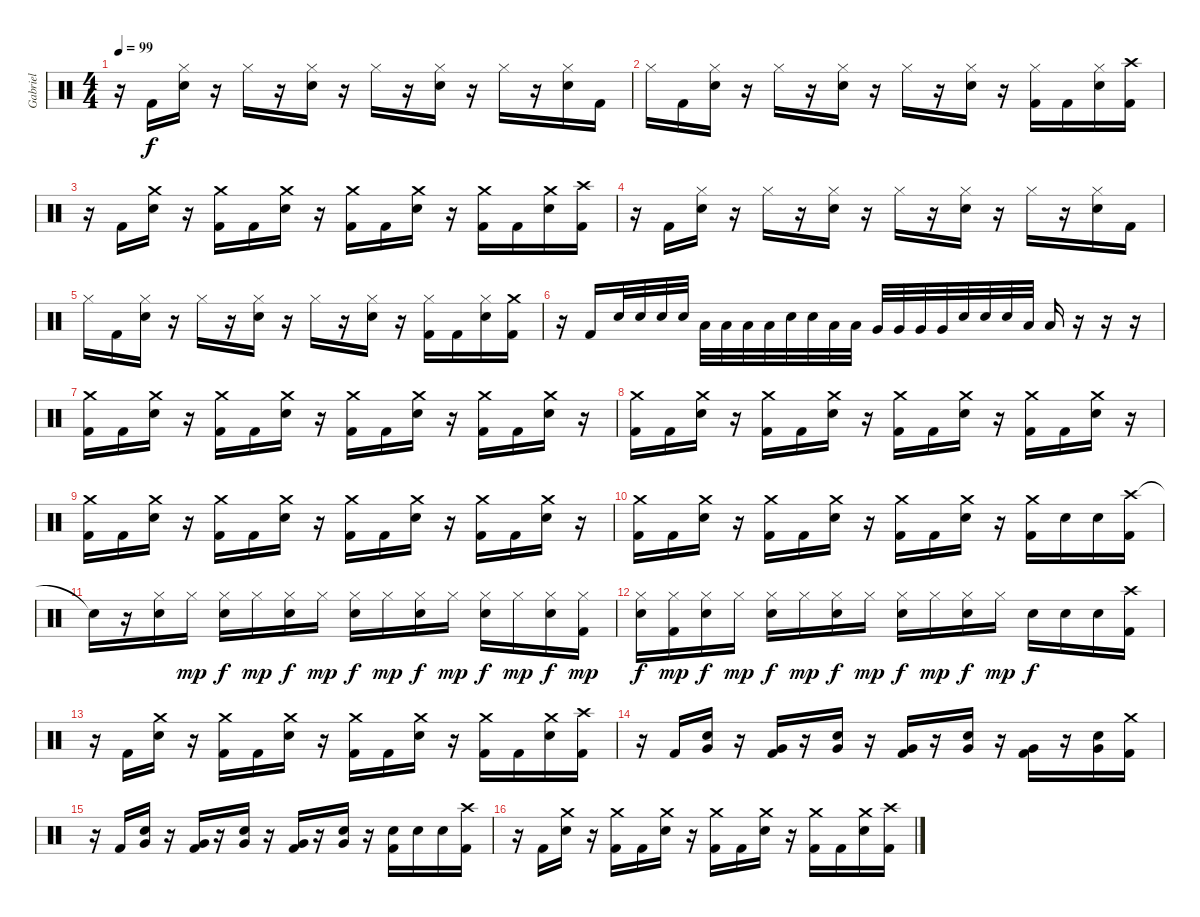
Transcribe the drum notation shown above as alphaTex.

\track ("Gabriel" "Gabriel") {instrument percussion}
\staff {score}
\articulation defaults
\ts (4 4)
\tempo 99
\clef neutral
\ks c
r.16{dy f} "Kick (hit) 2".16 ("Hi-Hat (closed)" "Electric Snare (hit)").16 r.16 "Hi-Hat (closed)".16 r.16 ("Hi-Hat (closed)" "Electric Snare (hit)").16 r.16 "Hi-Hat (closed)".16 r.16 ("Hi-Hat (closed)" "Electric Snare (hit)").16 r.16 "Hi-Hat (closed)".16 r.16 ("Hi-Hat (closed)" "Electric Snare (hit)").16 "Kick (hit) 2".16 |
"Hi-Hat (closed)".16 "Kick (hit) 2".16 ("Hi-Hat (closed)" "Electric Snare (hit)").16 r.16 "Hi-Hat (closed)".16 r.16 ("Hi-Hat (closed)" "Electric Snare (hit)").16 r.16 "Hi-Hat (closed)".16 r.16 ("Hi-Hat (closed)" "Electric Snare (hit)").16 r.16 ("Hi-Hat (closed)" "Kick (hit) 2").16 "Kick (hit) 2".16 ("Hi-Hat (closed)" "Electric Snare (hit)").16 ("Crash high (hit)" "Kick (hit) 2").16 |
r.16 "Kick (hit) 2".16 ("Crash medium (hit)" "Electric Snare (hit)").16 r.16 ("Crash medium (hit)" "Kick (hit) 2").16 "Kick (hit) 2".16 ("Crash medium (hit)" "Electric Snare (hit)").16 r.16 ("Crash medium (hit)" "Kick (hit) 2").16 "Kick (hit) 2".16 ("Crash medium (hit)" "Electric Snare (hit)").16 r.16 ("Crash medium (hit)" "Kick (hit) 2").16 "Kick (hit) 2".16 ("Crash medium (hit)" "Electric Snare (hit)").16 ("Crash high (hit)" "Kick (hit) 2").16 |
r.16 "Kick (hit) 2".16 ("Hi-Hat (closed)" "Electric Snare (hit)").16 r.16 "Hi-Hat (closed)".16 r.16 ("Hi-Hat (closed)" "Electric Snare (hit)").16 r.16 "Hi-Hat (closed)".16 r.16 ("Hi-Hat (closed)" "Electric Snare (hit)").16 r.16 "Hi-Hat (closed)".16 r.16 ("Hi-Hat (closed)" "Electric Snare (hit)").16 "Kick (hit) 2".16 |
"Hi-Hat (closed)".16 "Kick (hit) 2".16 ("Hi-Hat (closed)" "Electric Snare (hit)").16 r.16 "Hi-Hat (closed)".16 r.16 ("Hi-Hat (closed)" "Electric Snare (hit)").16 r.16 "Hi-Hat (closed)".16 r.16 ("Hi-Hat (closed)" "Electric Snare (hit)").16 r.16 ("Hi-Hat (closed)" "Kick (hit) 2").16 "Kick (hit) 2".16 ("Hi-Hat (closed)" "Electric Snare (hit)").16 ("Crash medium (hit)" "Kick (hit) 2").16 |
r.16 "Kick (hit) 2".16 "Electric Snare (hit)".32 "Electric Snare (hit)".32 "Electric Snare (hit)".32 "Electric Snare (hit)".32 "Low Tom (hit)".32 "Low Tom (hit)".32 "Low Tom (hit)".32 "Low Tom (hit)".32 "Electric Snare (hit)".32 "Electric Snare (hit)".32 "Low Tom (hit)".32 "Low Tom (hit)".32 "Very Low Tom (hit)".32 "Very Low Tom (hit)".32 "Very Low Tom (hit)".32 "Very Low Tom (hit)".32 "Electric Snare (hit)".32 "Electric Snare (hit)".32 "Electric Snare (hit)".32 "Low Tom (hit)".32 "Low Tom (hit)".16 r.16 r.16 r.16 |
("Crash medium (hit)" "Kick (hit) 2").16 "Kick (hit) 2".16 ("Crash medium (hit)" "Electric Snare (hit)").16 r.16 ("Crash medium (hit)" "Kick (hit) 2").16 "Kick (hit) 2".16 ("Crash medium (hit)" "Electric Snare (hit)").16 r.16 ("Crash medium (hit)" "Kick (hit) 2").16 "Kick (hit) 2".16 ("Crash medium (hit)" "Electric Snare (hit)").16 r.16 ("Crash medium (hit)" "Kick (hit) 2").16 "Kick (hit) 2".16 ("Crash medium (hit)" "Electric Snare (hit)").16 r.16 |
("Crash medium (hit)" "Kick (hit) 2").16 "Kick (hit) 2".16 ("Crash medium (hit)" "Electric Snare (hit)").16 r.16 ("Crash medium (hit)" "Kick (hit) 2").16 "Kick (hit) 2".16 ("Crash medium (hit)" "Electric Snare (hit)").16 r.16 ("Crash medium (hit)" "Kick (hit) 2").16 "Kick (hit) 2".16 ("Crash medium (hit)" "Electric Snare (hit)").16 r.16 ("Crash medium (hit)" "Kick (hit) 2").16 "Kick (hit) 2".16 ("Crash medium (hit)" "Electric Snare (hit)").16 r.16 |
("Crash medium (hit)" "Kick (hit) 2").16 "Kick (hit) 2".16 ("Crash medium (hit)" "Electric Snare (hit)").16 r.16 ("Crash medium (hit)" "Kick (hit) 2").16 "Kick (hit) 2".16 ("Crash medium (hit)" "Electric Snare (hit)").16 r.16 ("Crash medium (hit)" "Kick (hit) 2").16 "Kick (hit) 2".16 ("Crash medium (hit)" "Electric Snare (hit)").16 r.16 ("Crash medium (hit)" "Kick (hit) 2").16 "Kick (hit) 2".16 ("Crash medium (hit)" "Electric Snare (hit)").16 r.16 |
("Crash medium (hit)" "Kick (hit) 2").16 "Kick (hit) 2".16 ("Crash medium (hit)" "Electric Snare (hit)").16 r.16 ("Crash medium (hit)" "Kick (hit) 2").16 "Kick (hit) 2".16 ("Crash medium (hit)" "Electric Snare (hit)").16 r.16 ("Crash medium (hit)" "Kick (hit) 2").16 "Kick (hit) 2".16 ("Crash medium (hit)" "Electric Snare (hit)").16 r.16 ("Crash medium (hit)" "Kick (hit) 2").16 "Electric Snare (hit)".16 "Electric Snare (hit)".16 ("Crash high (hit)" "Kick (hit) 2").16 |
"Snare (hit)"{t}.16 r.16 ("Hi-Hat (closed)" "Electric Snare (hit)").16 "Hi-Hat (closed)".16{dy mp} ("Hi-Hat (closed)" "Electric Snare (hit)").16{dy f} "Hi-Hat (closed)".16{dy mp} ("Hi-Hat (closed)" "Electric Snare (hit)").16{dy f} "Hi-Hat (closed)".16{dy mp} ("Hi-Hat (closed)" "Electric Snare (hit)").16{dy f} "Hi-Hat (closed)".16{dy mp} ("Hi-Hat (closed)" "Electric Snare (hit)").16{dy f} "Hi-Hat (closed)".16{dy mp} ("Hi-Hat (closed)" "Electric Snare (hit)").16{dy f} "Hi-Hat (closed)".16{dy mp} ("Hi-Hat (closed)" "Electric Snare (hit)").16{dy f} ("Hi-Hat (closed)" "Kick (hit) 2").16{dy mp} |
("Hi-Hat (closed)" "Electric Snare (hit)").16{dy f} ("Hi-Hat (closed)" "Kick (hit) 2").16{dy mp} ("Hi-Hat (closed)" "Electric Snare (hit)").16{dy f} "Hi-Hat (closed)".16{dy mp} ("Hi-Hat (closed)" "Electric Snare (hit)").16{dy f} "Hi-Hat (closed)".16{dy mp} ("Hi-Hat (closed)" "Electric Snare (hit)").16{dy f} "Hi-Hat (closed)".16{dy mp} ("Hi-Hat (closed)" "Electric Snare (hit)").16{dy f} "Hi-Hat (closed)".16{dy mp} ("Hi-Hat (closed)" "Electric Snare (hit)").16{dy f} "Hi-Hat (closed)".16{dy mp} "Electric Snare (hit)".16{dy f} "Electric Snare (hit)".16 "Electric Snare (hit)".16 ("Crash high (hit)" "Kick (hit) 2").16 |
r.16 "Kick (hit) 2".16 ("Crash medium (hit)" "Electric Snare (hit)").16 r.16 ("Crash medium (hit)" "Kick (hit) 2").16 "Kick (hit) 2".16 ("Crash medium (hit)" "Electric Snare (hit)").16 r.16 ("Crash medium (hit)" "Kick (hit) 2").16 "Kick (hit) 2".16 ("Crash medium (hit)" "Electric Snare (hit)").16 r.16 ("Crash medium (hit)" "Kick (hit) 2").16 "Kick (hit) 2".16 ("Crash medium (hit)" "Electric Snare (hit)").16 ("Crash high (hit)" "Kick (hit) 2").16 |
r.16 "Kick (hit) 2".16 ("Very Low Tom (hit)" "Electric Snare (hit)").16 r.16 ("Very Low Tom (hit)" "Kick (hit) 2").16 r.16 ("Very Low Tom (hit)" "Electric Snare (hit)").16 r.16 ("Very Low Tom (hit)" "Kick (hit) 2").16 r.16 ("Very Low Tom (hit)" "Electric Snare (hit)").16 r.16 ("Very Low Tom (hit)" "Kick (hit) 2").16 r.16 ("Very Low Tom (hit)" "Electric Snare (hit)").16 ("Crash medium (hit)" "Kick (hit) 2").16 |
r.16 "Kick (hit) 2".16 ("Very Low Tom (hit)" "Electric Snare (hit)").16 r.16 ("Very Low Tom (hit)" "Kick (hit) 2").16 r.16 ("Very Low Tom (hit)" "Electric Snare (hit)").16 r.16 ("Very Low Tom (hit)" "Kick (hit) 2").16 r.16 ("Very Low Tom (hit)" "Electric Snare (hit)").16 r.16 ("Electric Snare (hit)" "Kick (hit) 2").16 "Electric Snare (hit)".16 "Electric Snare (hit)".16 ("Crash high (hit)" "Kick (hit) 2").16 |
r.16 "Kick (hit) 2".16 ("Crash medium (hit)" "Electric Snare (hit)").16 r.16 ("Crash medium (hit)" "Kick (hit) 2").16 "Kick (hit) 2".16 ("Crash medium (hit)" "Electric Snare (hit)").16 r.16 ("Crash medium (hit)" "Kick (hit) 2").16 "Kick (hit) 2".16 ("Crash medium (hit)" "Electric Snare (hit)").16 r.16 ("Crash medium (hit)" "Kick (hit) 2").16 "Kick (hit) 2".16 ("Crash medium (hit)" "Electric Snare (hit)").16 ("Crash high (hit)" "Kick (hit) 2").16
